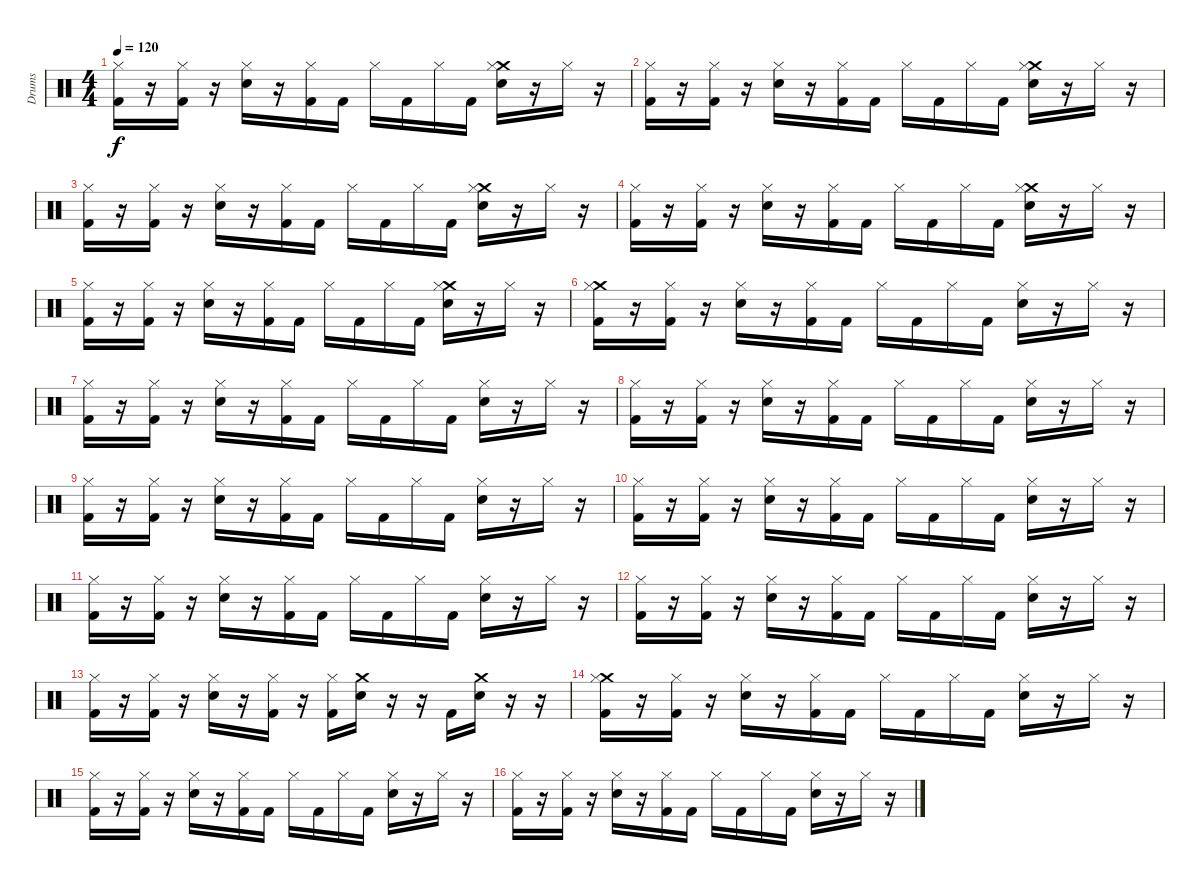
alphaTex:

\track ("Drums" "Drums") {instrument percussion}
\staff {score}
\articulation defaults
\ts (4 4)
\tempo 120
\clef neutral
\ks c
("Hi-Hat (closed)" "Kick (hit) 2").16{dy f} r.16 ("Hi-Hat (closed)" "Kick (hit) 2").16 r.16 ("Hi-Hat (closed)" "Snare (hit) 2").16 r.16 ("Hi-Hat (closed)" "Kick (hit) 2").16 "Kick (hit) 2".16 "Hi-Hat (closed)".16 "Kick (hit) 2".16 "Hi-Hat (closed)".16 "Kick (hit) 2".16 ("Crash medium (hit)" "Hi-Hat (closed)" "Snare (hit) 2").16 r.16 "Hi-Hat (closed)".16 r.16 |
("Hi-Hat (closed)" "Kick (hit) 2").16 r.16 ("Hi-Hat (closed)" "Kick (hit) 2").16 r.16 ("Hi-Hat (closed)" "Snare (hit) 2").16 r.16 ("Hi-Hat (closed)" "Kick (hit) 2").16 "Kick (hit) 2".16 "Hi-Hat (closed)".16 "Kick (hit) 2".16 "Hi-Hat (closed)".16 "Kick (hit) 2".16 ("Crash medium (hit)" "Hi-Hat (closed)" "Snare (hit) 2").16 r.16 "Hi-Hat (closed)".16 r.16 |
("Hi-Hat (closed)" "Kick (hit) 2").16 r.16 ("Hi-Hat (closed)" "Kick (hit) 2").16 r.16 ("Hi-Hat (closed)" "Snare (hit) 2").16 r.16 ("Hi-Hat (closed)" "Kick (hit) 2").16 "Kick (hit) 2".16 "Hi-Hat (closed)".16 "Kick (hit) 2".16 "Hi-Hat (closed)".16 "Kick (hit) 2".16 ("Crash medium (hit)" "Hi-Hat (closed)" "Snare (hit) 2").16 r.16 "Hi-Hat (closed)".16 r.16 |
("Hi-Hat (closed)" "Kick (hit) 2").16 r.16 ("Hi-Hat (closed)" "Kick (hit) 2").16 r.16 ("Hi-Hat (closed)" "Snare (hit) 2").16 r.16 ("Hi-Hat (closed)" "Kick (hit) 2").16 "Kick (hit) 2".16 "Hi-Hat (closed)".16 "Kick (hit) 2".16 "Hi-Hat (closed)".16 "Kick (hit) 2".16 ("Crash medium (hit)" "Hi-Hat (closed)" "Snare (hit) 2").16 r.16 "Hi-Hat (closed)".16 r.16 |
("Hi-Hat (closed)" "Kick (hit) 2").16 r.16 ("Hi-Hat (closed)" "Kick (hit) 2").16 r.16 ("Hi-Hat (closed)" "Snare (hit) 2").16 r.16 ("Hi-Hat (closed)" "Kick (hit) 2").16 "Kick (hit) 2".16 "Hi-Hat (closed)".16 "Kick (hit) 2".16 "Hi-Hat (closed)".16 "Kick (hit) 2".16 ("Crash medium (hit)" "Hi-Hat (closed)" "Snare (hit) 2").16 r.16 "Hi-Hat (closed)".16 r.16 |
("Crash medium (hit)" "Hi-Hat (closed)" "Kick (hit) 2").16 r.16 ("Hi-Hat (closed)" "Kick (hit) 2").16 r.16 ("Hi-Hat (closed)" "Snare (hit) 2").16 r.16 ("Hi-Hat (closed)" "Kick (hit) 2").16 "Kick (hit) 2".16 "Hi-Hat (closed)".16 "Kick (hit) 2".16 "Hi-Hat (closed)".16 "Kick (hit) 2".16 ("Hi-Hat (closed)" "Snare (hit) 2").16 r.16 "Hi-Hat (closed)".16 r.16 |
("Hi-Hat (closed)" "Kick (hit) 2").16 r.16 ("Hi-Hat (closed)" "Kick (hit) 2").16 r.16 ("Hi-Hat (closed)" "Snare (hit) 2").16 r.16 ("Hi-Hat (closed)" "Kick (hit) 2").16 "Kick (hit) 2".16 "Hi-Hat (closed)".16 "Kick (hit) 2".16 "Hi-Hat (closed)".16 "Kick (hit) 2".16 ("Hi-Hat (closed)" "Snare (hit) 2").16 r.16 "Hi-Hat (closed)".16 r.16 |
("Hi-Hat (closed)" "Kick (hit) 2").16 r.16 ("Hi-Hat (closed)" "Kick (hit) 2").16 r.16 ("Hi-Hat (closed)" "Snare (hit) 2").16 r.16 ("Hi-Hat (closed)" "Kick (hit) 2").16 "Kick (hit) 2".16 "Hi-Hat (closed)".16 "Kick (hit) 2".16 "Hi-Hat (closed)".16 "Kick (hit) 2".16 ("Hi-Hat (closed)" "Snare (hit) 2").16 r.16 "Hi-Hat (closed)".16 r.16 |
("Hi-Hat (closed)" "Kick (hit) 2").16 r.16 ("Hi-Hat (closed)" "Kick (hit) 2").16 r.16 ("Hi-Hat (closed)" "Snare (hit) 2").16 r.16 ("Hi-Hat (closed)" "Kick (hit) 2").16 "Kick (hit) 2".16 "Hi-Hat (closed)".16 "Kick (hit) 2".16 "Hi-Hat (closed)".16 "Kick (hit) 2".16 ("Hi-Hat (closed)" "Snare (hit) 2").16 r.16 "Hi-Hat (closed)".16 r.16 |
("Hi-Hat (closed)" "Kick (hit) 2").16 r.16 ("Hi-Hat (closed)" "Kick (hit) 2").16 r.16 ("Hi-Hat (closed)" "Snare (hit) 2").16 r.16 ("Hi-Hat (closed)" "Kick (hit) 2").16 "Kick (hit) 2".16 "Hi-Hat (closed)".16 "Kick (hit) 2".16 "Hi-Hat (closed)".16 "Kick (hit) 2".16 ("Hi-Hat (closed)" "Snare (hit) 2").16 r.16 "Hi-Hat (closed)".16 r.16 |
("Hi-Hat (closed)" "Kick (hit) 2").16 r.16 ("Hi-Hat (closed)" "Kick (hit) 2").16 r.16 ("Hi-Hat (closed)" "Snare (hit) 2").16 r.16 ("Hi-Hat (closed)" "Kick (hit) 2").16 "Kick (hit) 2".16 "Hi-Hat (closed)".16 "Kick (hit) 2".16 "Hi-Hat (closed)".16 "Kick (hit) 2".16 ("Hi-Hat (closed)" "Snare (hit) 2").16 r.16 "Hi-Hat (closed)".16 r.16 |
("Hi-Hat (closed)" "Kick (hit) 2").16 r.16 ("Hi-Hat (closed)" "Kick (hit) 2").16 r.16 ("Hi-Hat (closed)" "Snare (hit) 2").16 r.16 ("Hi-Hat (closed)" "Kick (hit) 2").16 "Kick (hit) 2".16 "Hi-Hat (closed)".16 "Kick (hit) 2".16 "Hi-Hat (closed)".16 "Kick (hit) 2".16 ("Hi-Hat (closed)" "Snare (hit) 2").16 r.16 "Hi-Hat (closed)".16 r.16 |
("Hi-Hat (closed)" "Kick (hit) 2").16 r.16 ("Hi-Hat (closed)" "Kick (hit) 2").16 r.16 ("Hi-Hat (closed)" "Snare (hit) 2").16 r.16 ("Hi-Hat (closed)" "Kick (hit) 2").16 r.16 ("Hi-Hat (closed)" "Kick (hit) 2").16 ("Crash medium (hit)" "Snare (hit) 2").16 r.16 r.16 "Kick (hit) 2".16 ("Crash medium (hit)" "Snare (hit) 2").16 r.16 r.16 |
("Crash medium (hit)" "Hi-Hat (closed)" "Kick (hit) 2").16 r.16 ("Hi-Hat (closed)" "Kick (hit) 2").16 r.16 ("Hi-Hat (closed)" "Snare (hit) 2").16 r.16 ("Hi-Hat (closed)" "Kick (hit) 2").16 "Kick (hit) 2".16 "Hi-Hat (closed)".16 "Kick (hit) 2".16 "Hi-Hat (closed)".16 "Kick (hit) 2".16 ("Hi-Hat (closed)" "Snare (hit) 2").16 r.16 "Hi-Hat (closed)".16 r.16 |
("Hi-Hat (closed)" "Kick (hit) 2").16 r.16 ("Hi-Hat (closed)" "Kick (hit) 2").16 r.16 ("Hi-Hat (closed)" "Snare (hit) 2").16 r.16 ("Hi-Hat (closed)" "Kick (hit) 2").16 "Kick (hit) 2".16 "Hi-Hat (closed)".16 "Kick (hit) 2".16 "Hi-Hat (closed)".16 "Kick (hit) 2".16 ("Hi-Hat (closed)" "Snare (hit) 2").16 r.16 "Hi-Hat (closed)".16 r.16 |
("Hi-Hat (closed)" "Kick (hit) 2").16 r.16 ("Hi-Hat (closed)" "Kick (hit) 2").16 r.16 ("Hi-Hat (closed)" "Snare (hit) 2").16 r.16 ("Hi-Hat (closed)" "Kick (hit) 2").16 "Kick (hit) 2".16 "Hi-Hat (closed)".16 "Kick (hit) 2".16 "Hi-Hat (closed)".16 "Kick (hit) 2".16 ("Hi-Hat (closed)" "Snare (hit) 2").16 r.16 "Hi-Hat (closed)".16 r.16
